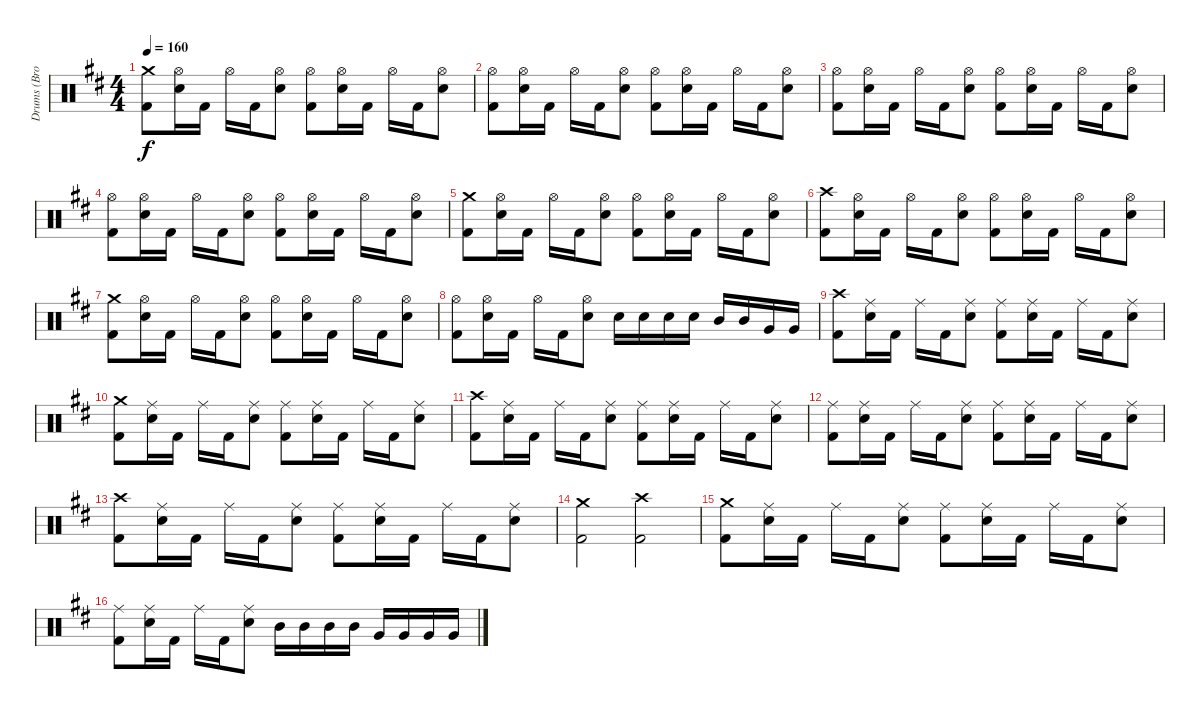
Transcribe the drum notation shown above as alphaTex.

\track ("Drums (Brooks Wackerman)" "Drums (Bro") {instrument percussion}
\staff {score}
\articulation defaults
\ts (4 4)
\tempo 160
\clef neutral
\ks d
("Crash medium (hit)" "Kick (hit) 2").8{dy f} ("Hi-Hat (open)" "Snare (hit) 2").16 "Kick (hit) 2".16 "Hi-Hat (open)".16 "Kick (hit) 2".16 ("Hi-Hat (open)" "Snare (hit) 2").8 ("Hi-Hat (open)" "Kick (hit) 2").8 ("Hi-Hat (open)" "Snare (hit) 2").16 "Kick (hit) 2".16 "Hi-Hat (open)".16 "Kick (hit) 2".16 ("Hi-Hat (open)" "Snare (hit) 2").8 |
("Hi-Hat (open)" "Kick (hit) 2").8 ("Hi-Hat (open)" "Snare (hit) 2").16 "Kick (hit) 2".16 "Hi-Hat (open)".16 "Kick (hit) 2".16 ("Hi-Hat (open)" "Snare (hit) 2").8 ("Hi-Hat (open)" "Kick (hit) 2").8 ("Hi-Hat (open)" "Snare (hit) 2").16 "Kick (hit) 2".16 "Hi-Hat (open)".16 "Kick (hit) 2".16 ("Hi-Hat (open)" "Snare (hit) 2").8 |
("Hi-Hat (open)" "Kick (hit) 2").8 ("Hi-Hat (open)" "Snare (hit) 2").16 "Kick (hit) 2".16 "Hi-Hat (open)".16 "Kick (hit) 2".16 ("Hi-Hat (open)" "Snare (hit) 2").8 ("Hi-Hat (open)" "Kick (hit) 2").8 ("Hi-Hat (open)" "Snare (hit) 2").16 "Kick (hit) 2".16 "Hi-Hat (open)".16 "Kick (hit) 2".16 ("Hi-Hat (open)" "Snare (hit) 2").8 |
("Hi-Hat (open)" "Kick (hit) 2").8 ("Hi-Hat (open)" "Snare (hit) 2").16 "Kick (hit) 2".16 "Hi-Hat (open)".16 "Kick (hit) 2".16 ("Hi-Hat (open)" "Snare (hit) 2").8 ("Hi-Hat (open)" "Kick (hit) 2").8 ("Hi-Hat (open)" "Snare (hit) 2").16 "Kick (hit) 2".16 "Hi-Hat (open)".16 "Kick (hit) 2".16 ("Hi-Hat (open)" "Snare (hit) 2").8 |
("Crash medium (hit)" "Kick (hit) 2").8 ("Hi-Hat (open)" "Snare (hit) 2").16 "Kick (hit) 2".16 "Hi-Hat (open)".16 "Kick (hit) 2".16 ("Hi-Hat (open)" "Snare (hit) 2").8 ("Hi-Hat (open)" "Kick (hit) 2").8 ("Hi-Hat (open)" "Snare (hit) 2").16 "Kick (hit) 2".16 "Hi-Hat (open)".16 "Kick (hit) 2".16 ("Hi-Hat (open)" "Snare (hit) 2").8 |
("Crash high (hit)" "Kick (hit) 2").8 ("Hi-Hat (open)" "Snare (hit) 2").16 "Kick (hit) 2".16 "Hi-Hat (open)".16 "Kick (hit) 2".16 ("Hi-Hat (open)" "Snare (hit) 2").8 ("Hi-Hat (open)" "Kick (hit) 2").8 ("Hi-Hat (open)" "Snare (hit) 2").16 "Kick (hit) 2".16 "Hi-Hat (open)".16 "Kick (hit) 2".16 ("Hi-Hat (open)" "Snare (hit) 2").8 |
("Crash medium (hit)" "Kick (hit) 2").8 ("Hi-Hat (open)" "Snare (hit) 2").16 "Kick (hit) 2".16 "Hi-Hat (open)".16 "Kick (hit) 2".16 ("Hi-Hat (open)" "Snare (hit) 2").8 ("Hi-Hat (open)" "Kick (hit) 2").8 ("Hi-Hat (open)" "Snare (hit) 2").16 "Kick (hit) 2".16 "Hi-Hat (open)".16 "Kick (hit) 2".16 ("Hi-Hat (open)" "Snare (hit) 2").8 |
("Hi-Hat (open)" "Kick (hit) 2").8 ("Hi-Hat (open)" "Snare (hit) 2").16 "Kick (hit) 2".16 "Hi-Hat (open)".16 "Kick (hit) 2".16 ("Hi-Hat (open)" "Snare (hit) 2").8 "Snare (hit) 2".16 "Snare (hit) 2".16 "Snare (hit) 2".16 "Snare (hit) 2".16 "Mid Tom (hit)".16 "Mid Tom (hit)".16 "Very Low Tom (hit)".16 "Very Low Tom (hit)".16 |
("Crash high (hit)" "Kick (hit) 2").8 ("Ride (middle)" "Snare (hit) 2").16 "Kick (hit) 2".16 "Ride (middle)".16 "Kick (hit) 2".16 ("Ride (middle)" "Snare (hit) 2").8 ("Ride (middle)" "Kick (hit) 2").8 ("Ride (middle)" "Snare (hit) 2").16 "Kick (hit) 2".16 "Ride (middle)".16 "Kick (hit) 2".16 ("Ride (middle)" "Snare (hit) 2").8 |
("Crash medium (hit)" "Kick (hit) 2").8 ("Ride (middle)" "Snare (hit) 2").16 "Kick (hit) 2".16 "Ride (middle)".16 "Kick (hit) 2".16 ("Ride (middle)" "Snare (hit) 2").8 ("Ride (middle)" "Kick (hit) 2").8 ("Ride (middle)" "Snare (hit) 2").16 "Kick (hit) 2".16 "Ride (middle)".16 "Kick (hit) 2".16 ("Ride (middle)" "Snare (hit) 2").8 |
("Crash high (hit)" "Kick (hit) 2").8 ("Ride (middle)" "Snare (hit) 2").16 "Kick (hit) 2".16 "Ride (middle)".16 "Kick (hit) 2".16 ("Ride (middle)" "Snare (hit) 2").8 ("Ride (middle)" "Kick (hit) 2").8 ("Ride (middle)" "Snare (hit) 2").16 "Kick (hit) 2".16 "Ride (middle)".16 "Kick (hit) 2".16 ("Ride (middle)" "Snare (hit) 2").8 |
("Ride (middle)" "Kick (hit) 2").8 ("Ride (middle)" "Snare (hit) 2").16 "Kick (hit) 2".16 "Ride (middle)".16 "Kick (hit) 2".16 ("Ride (middle)" "Snare (hit) 2").8 ("Ride (middle)" "Kick (hit) 2").8 ("Ride (middle)" "Snare (hit) 2").16 "Kick (hit) 2".16 "Ride (middle)".16 "Kick (hit) 2".16 ("Ride (middle)" "Snare (hit) 2").8 |
("Crash high (hit)" "Kick (hit) 2").8 ("Ride (middle)" "Snare (hit) 2").16 "Kick (hit) 2".16 "Ride (middle)".16 "Kick (hit) 2".16 ("Ride (middle)" "Snare (hit) 2").8 ("Ride (middle)" "Kick (hit) 2").8 ("Ride (middle)" "Snare (hit) 2").16 "Kick (hit) 2".16 "Ride (middle)".16 "Kick (hit) 2".16 ("Ride (middle)" "Snare (hit) 2").8 |
("Crash medium (hit)" "Kick (hit) 2").2 ("Crash high (hit)" "Kick (hit) 2").2 |
("Crash medium (hit)" "Kick (hit) 2").8 ("Ride (middle)" "Snare (hit) 2").16 "Kick (hit) 2".16 "Ride (middle)".16 "Kick (hit) 2".16 ("Ride (middle)" "Snare (hit) 2").8 ("Ride (middle)" "Kick (hit) 2").8 ("Ride (middle)" "Snare (hit) 2").16 "Kick (hit) 2".16 "Ride (middle)".16 "Kick (hit) 2".16 ("Ride (middle)" "Snare (hit) 2").8 |
("Ride (middle)" "Kick (hit) 2").8 ("Ride (middle)" "Snare (hit) 2").16 "Kick (hit) 2".16 "Ride (middle)".16 "Kick (hit) 2".16 ("Ride (middle)" "Snare (hit) 2").8 "Mid Tom (hit)".16 "Mid Tom (hit)".16 "Mid Tom (hit)".16 "Mid Tom (hit)".16 "Very Low Tom (hit)".16 "Very Low Tom (hit)".16 "Very Low Tom (hit)".16 "Very Low Tom (hit)".16
